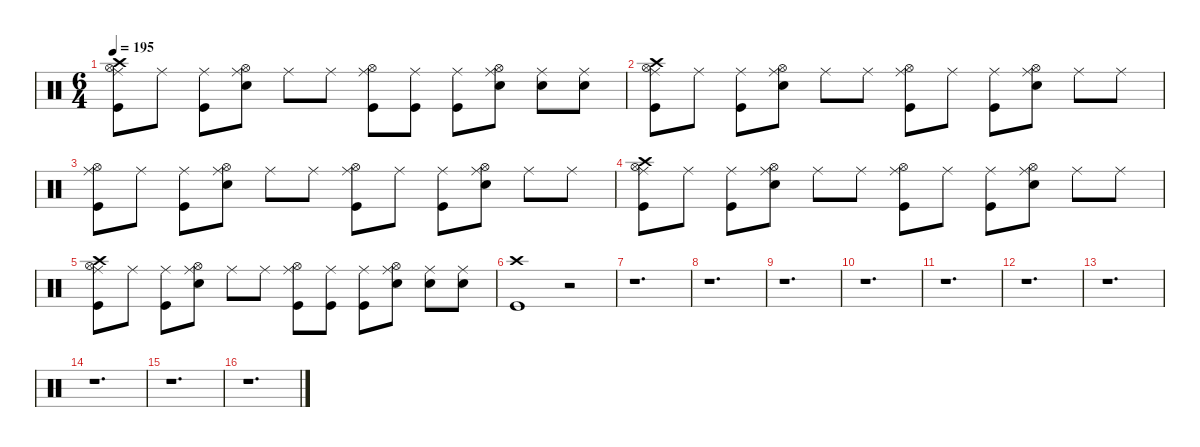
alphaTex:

\defaultSystemsLayout 4
\hideDynamics
\bracketExtendMode nobrackets
\singleTrackTrackNamePolicy hidden
\multiTrackTrackNamePolicy hidden
\firstSystemTrackNameMode fullname
\firstSystemTrackNameOrientation horizontal
\otherSystemsTrackNameOrientation horizontal
\track ("Percussion" "drm.") {defaultSystemsLayout 2 instrument percussion}
\staff {score}
\articulation defaults
\ts (6 4)
\tempo 195
\clef neutral
\ks c
("Crash high (hit)" "Ride (middle)" "Hi-Hat (open)" "Kick (hit)").8{dy f beam Down} "Ride (middle)".8{beam Down} ("Ride (middle)" "Kick (hit)").8{beam Down} ("Ride (middle)" "Snare (hit) 2" "Hi-Hat (open)").8{beam Down} "Ride (middle)".8{beam Down} "Ride (middle)".8{beam Down} ("Ride (middle)" "Hi-Hat (open)" "Kick (hit)").8{beam Down} ("Ride (middle)" "Kick (hit)").8{beam Down} ("Ride (middle)" "Kick (hit)").8{beam Down} ("Ride (middle)" "Snare (hit) 2" "Hi-Hat (open)").8{beam Down} ("Ride (middle)" "Snare (hit) 2").8{beam Down} ("Ride (middle)" "Snare (hit) 2").8{beam Down} |
("Crash high (hit)" "Ride (middle)" "Hi-Hat (open)" "Kick (hit)").8{beam Down} "Ride (middle)".8{beam Down} ("Ride (middle)" "Kick (hit)").8{beam Down} ("Ride (middle)" "Snare (hit) 2" "Hi-Hat (open)").8{beam Down} "Ride (middle)".8{beam Down} "Ride (middle)".8{beam Down} ("Ride (middle)" "Hi-Hat (open)" "Kick (hit)").8{beam Down} "Ride (middle)".8{beam Down} ("Ride (middle)" "Kick (hit)").8{beam Down} ("Ride (middle)" "Snare (hit) 2" "Hi-Hat (open)").8{beam Down} "Ride (middle)".8{beam Down} "Ride (middle)".8{beam Down} |
("Ride (middle)" "Hi-Hat (open)" "Kick (hit)").8{beam Down} "Ride (middle)".8{beam Down} ("Ride (middle)" "Kick (hit)").8{beam Down} ("Ride (middle)" "Snare (hit) 2" "Hi-Hat (open)").8{beam Down} "Ride (middle)".8{beam Down} "Ride (middle)".8{beam Down} ("Ride (middle)" "Hi-Hat (open)" "Kick (hit)").8{beam Down} "Ride (middle)".8{beam Down} ("Ride (middle)" "Kick (hit)").8{beam Down} ("Ride (middle)" "Snare (hit) 2" "Hi-Hat (open)").8{beam Down} "Ride (middle)".8{beam Down} "Ride (middle)".8{beam Down} |
("Crash high (hit)" "Ride (middle)" "Hi-Hat (open)" "Kick (hit)").8{beam Down} "Ride (middle)".8{beam Down} ("Ride (middle)" "Kick (hit)").8{beam Down} ("Ride (middle)" "Snare (hit) 2" "Hi-Hat (open)").8{beam Down} "Ride (middle)".8{beam Down} "Ride (middle)".8{beam Down} ("Ride (middle)" "Hi-Hat (open)" "Kick (hit)").8{beam Down} "Ride (middle)".8{beam Down} ("Ride (middle)" "Kick (hit)").8{beam Down} ("Ride (middle)" "Snare (hit) 2" "Hi-Hat (open)").8{beam Down} "Ride (middle)".8{beam Down} "Ride (middle)".8{beam Down} |
("Crash high (hit)" "Ride (middle)" "Hi-Hat (open)" "Kick (hit)").8{beam Down} "Ride (middle)".8{beam Down} ("Ride (middle)" "Kick (hit)").8{beam Down} ("Ride (middle)" "Snare (hit) 2" "Hi-Hat (open)").8{beam Down} "Ride (middle)".8{beam Down} "Ride (middle)".8{beam Down} ("Ride (middle)" "Hi-Hat (open)" "Kick (hit)").8{beam Down} ("Ride (middle)" "Kick (hit)").8{beam Down} ("Ride (middle)" "Kick (hit)").8{beam Down} ("Ride (middle)" "Snare (hit) 2" "Hi-Hat (open)").8{beam Down} ("Ride (middle)" "Snare (hit) 2").8{beam Down} ("Ride (middle)" "Snare (hit) 2").8{beam Down} |
("Crash high (hit)" "Kick (hit)").1{beam Down} r.2{beam Down} |
r.1{d beam Down} |
r.1{d beam Down} |
r.1{d beam Down} |
r.1{d beam Down} |
r.1{d beam Down} |
r.1{d beam Down} |
r.1{d beam Down} |
r.1{d beam Down} |
r.1{d beam Down} |
r.1{d beam Down}
